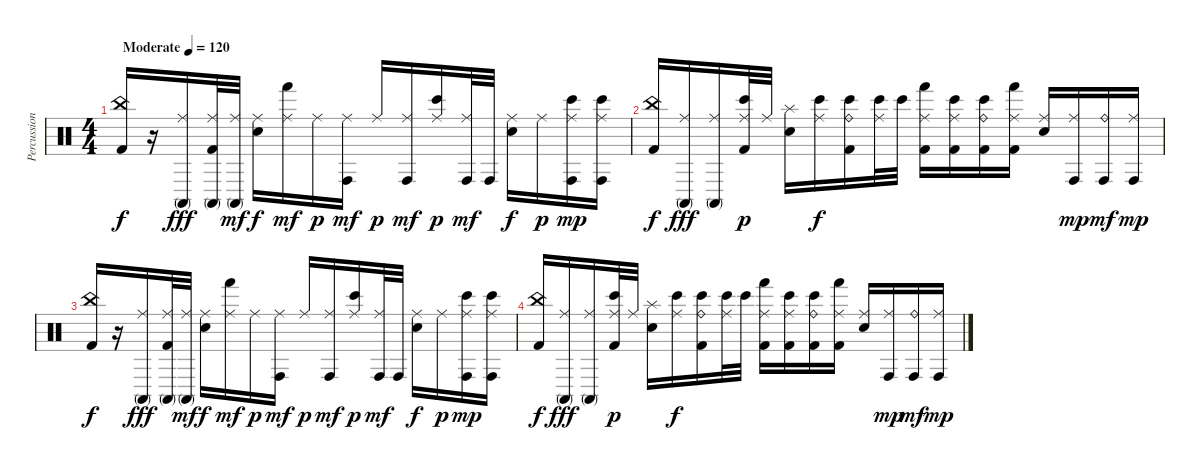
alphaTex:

\track ("Percussion" "Percussion") {instrument percussion}
\staff {score}
\articulation defaults
\ts (4 4)
\tempo (120 "Moderate")
\clef neutral
\ks c
("China (hit)" "Kick (hit) 2").16{dy f} r.16 ("Ride (middle)" "Conga high (mute)").16{dy fff} ("Ride (middle)" "Conga high (mute)" "Kick (hit) 2").32 ("Ride (middle)" "Conga high (mute)").32{dy mf} ("Ride (middle)" "Electric Snare (hit)").16{dy f} ("Ride (middle)" "Hand (hit)").16{dy mf} "Ride (middle)".16{dy p} ("Ride (middle)" "Conga high (hit)").16{dy mf} "Ride (middle)".16{dy p} ("Ride (middle)" "Conga high (hit)").16{dy mf} ("Ride (middle)" "Bongo High (hit)").16{dy p} ("Ride (middle)" "Conga high (hit)").32{dy mf} "Conga high (hit)".32 ("Ride (middle)" "Electric Snare (hit)").16{dy f} "Ride (middle)".16{dy p} ("Ride (middle)" "Conga high (hit)" "Bongo High (hit)").16{dy mp} ("Ride (middle)" "Conga high (hit)" "Bongo High (hit)").16 |
("China (hit)" "Kick (hit) 2").16{dy f} ("Ride (middle)" "Conga high (mute)").16{dy fff} ("Ride (middle)" "Conga high (mute)").16 ("Ride (middle)" "Bongo High (hit)" "Kick (hit) 2").32{dy p} "Ride (middle)".32 ("Splash (hit)" "Electric Snare (hit)").16 ("Ride (middle)" "Bongo High (hit)").16{dy f} ("Ride (bell)" "Bongo High (hit)" "Kick (hit) 2").16 ("Ride (middle)" "Bongo High (hit)").32 "Bongo High (hit)".32 ("Ride (middle)" "Hand (hit)" "Kick (hit) 2").16 ("Ride (middle)" "Bongo High (hit)" "Kick (hit) 2").16 ("Ride (bell)" "Bongo High (hit)" "Kick (hit) 2").16 ("Ride (middle)" "Hand (hit)" "Kick (hit) 2").16 ("Ride (middle)" "Electric Snare (hit)").16 ("Ride (middle)" "Conga high (hit)").16{dy mp} ("Ride (bell)" "Conga high (hit)").16{dy mf} ("Ride (middle)" "Conga high (hit)").16{dy mp} |
("China (hit)" "Kick (hit) 2").16{dy f} r.16 ("Ride (middle)" "Conga high (mute)").16{dy fff} ("Ride (middle)" "Conga high (mute)" "Kick (hit) 2").32 ("Ride (middle)" "Conga high (mute)").32{dy mf} ("Ride (middle)" "Electric Snare (hit)").16{dy f} ("Ride (middle)" "Hand (hit)").16{dy mf} "Ride (middle)".16{dy p} ("Ride (middle)" "Conga high (hit)").16{dy mf} "Ride (middle)".16{dy p} ("Ride (middle)" "Conga high (hit)").16{dy mf} ("Ride (middle)" "Bongo High (hit)").16{dy p} ("Ride (middle)" "Conga high (hit)").32{dy mf} "Conga high (hit)".32 ("Ride (middle)" "Electric Snare (hit)").16{dy f} "Ride (middle)".16{dy p} ("Ride (middle)" "Conga high (hit)" "Bongo High (hit)").16{dy mp} ("Ride (middle)" "Conga high (hit)" "Bongo High (hit)").16 |
("China (hit)" "Kick (hit) 2").16{dy f} ("Ride (middle)" "Conga high (mute)").16{dy fff} ("Ride (middle)" "Conga high (mute)").16 ("Ride (middle)" "Bongo High (hit)" "Kick (hit) 2").32{dy p} "Ride (middle)".32 ("Splash (hit)" "Electric Snare (hit)").16 ("Ride (middle)" "Bongo High (hit)").16{dy f} ("Ride (bell)" "Bongo High (hit)" "Kick (hit) 2").16 ("Ride (middle)" "Bongo High (hit)").32 "Bongo High (hit)".32 ("Ride (middle)" "Hand (hit)" "Kick (hit) 2").16 ("Ride (middle)" "Bongo High (hit)" "Kick (hit) 2").16 ("Ride (bell)" "Bongo High (hit)" "Kick (hit) 2").16 ("Ride (middle)" "Hand (hit)" "Kick (hit) 2").16 ("Ride (middle)" "Electric Snare (hit)").16 ("Ride (middle)" "Conga high (hit)").16{dy mp} ("Ride (bell)" "Conga high (hit)").16{dy mf} ("Ride (middle)" "Conga high (hit)").16{dy mp}
